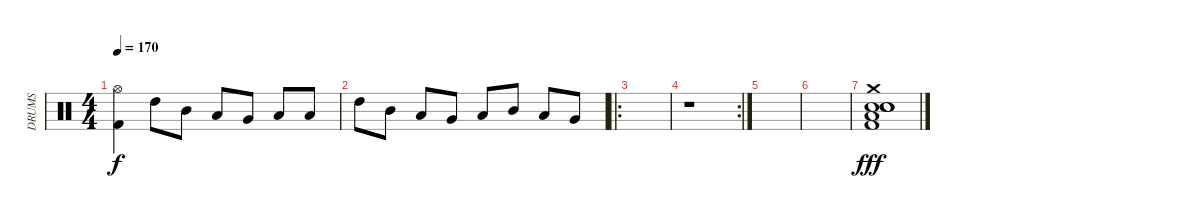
\track ("DRUMS" "DRUMS") {instrument percussion}
\staff {score}
\articulation defaults
\ts (4 4)
\tempo 170
\clef neutral
\ks c
("Hi-Hat (open)" "Kick (hit) 2").4{dy f} "High Tom (hit)".8 "Mid Tom (hit)".8 "Low Tom (hit)".8 "Very Low Tom (hit)".8 "Low Floor Tom (hit)".8 "Low Floor Tom (hit)".8 |
"High Tom (hit)".8 "Mid Tom (hit)".8 "Low Tom (hit)".8 "Very Low Tom (hit)".8 "Low Floor Tom (hit)".8 "Mid Tom (hit)".8 "Low Tom (hit)".8 "Very Low Tom (hit)".8 |
\ro
|
\rc 2
r.1 |
|
|
("Crash medium (hit)" "Electric Snare (hit)" "Electric Snare (hit)" "Snare (hit) 2" "Kick (hit) 2" "Low Floor Tom (hit)").1{dy fff}
